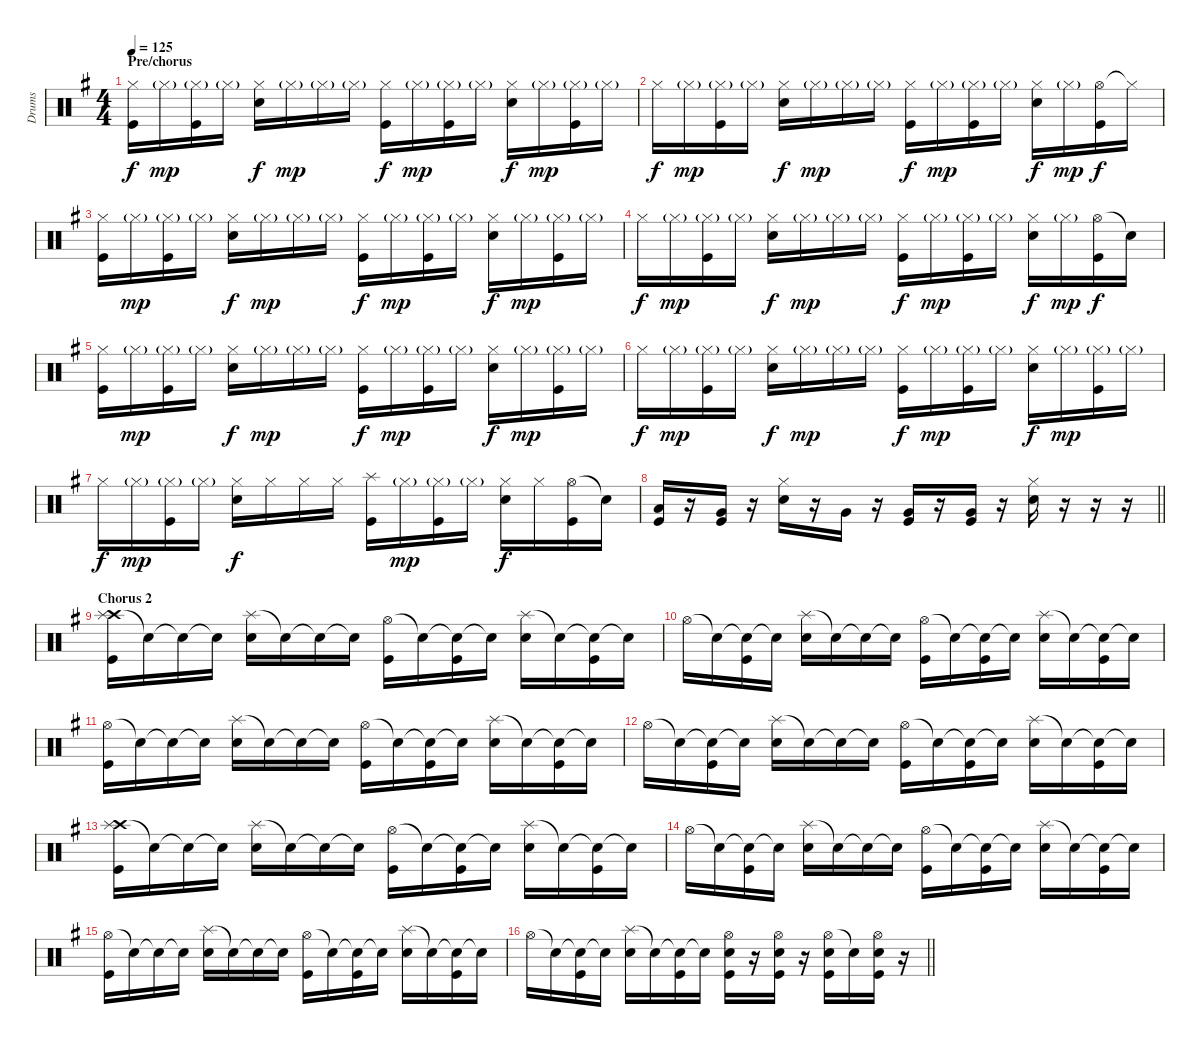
\track ("Drums" "Drums") {instrument percussion}
\staff {score}
\articulation defaults
\ts (4 4)
\section ("" "Pre/chorus")
\tempo 125
\clef neutral
\ks g
("Hi-Hat (closed)" "Kick (hit)").16{dy f} "Hi-Hat (closed)"{g}.16{dy mp} ("Hi-Hat (closed)"{g} "Kick (hit)").16 "Hi-Hat (closed)"{g}.16 ("Hi-Hat (closed)" "Electric Snare (hit)").16{dy f} "Hi-Hat (closed)"{g}.16{dy mp} "Hi-Hat (closed)"{g}.16 "Hi-Hat (closed)"{g}.16 ("Hi-Hat (closed)" "Kick (hit)").16{dy f} "Hi-Hat (closed)"{g}.16{dy mp} ("Hi-Hat (closed)"{g} "Kick (hit)").16 "Hi-Hat (closed)"{g}.16 ("Hi-Hat (closed)" "Electric Snare (hit)").16{dy f} "Hi-Hat (closed)"{g}.16{dy mp} ("Hi-Hat (closed)"{g} "Kick (hit)").16 "Hi-Hat (closed)"{g}.16 |
"Hi-Hat (closed)".16{dy f} "Hi-Hat (closed)"{g}.16{dy mp} ("Hi-Hat (closed)"{g} "Kick (hit)").16 "Hi-Hat (closed)"{g}.16 ("Hi-Hat (closed)" "Electric Snare (hit)").16{dy f} "Hi-Hat (closed)"{g}.16{dy mp} "Hi-Hat (closed)"{g}.16 "Hi-Hat (closed)"{g}.16 ("Hi-Hat (closed)" "Kick (hit)").16{dy f} "Hi-Hat (closed)"{g}.16{dy mp} ("Hi-Hat (closed)"{g} "Kick (hit)").16 "Hi-Hat (closed)"{g}.16 ("Hi-Hat (closed)" "Electric Snare (hit)").16{dy f} "Hi-Hat (closed)"{g}.16{dy mp} ("Hi-Hat (open)" "Kick (hit)").16{dy f} "Hi-Hat (closed)"{t}.16 |
("Hi-Hat (closed)" "Kick (hit)").16 "Hi-Hat (closed)"{g}.16{dy mp} ("Hi-Hat (closed)"{g} "Kick (hit)").16 "Hi-Hat (closed)"{g}.16 ("Hi-Hat (closed)" "Electric Snare (hit)").16{dy f} "Hi-Hat (closed)"{g}.16{dy mp} "Hi-Hat (closed)"{g}.16 "Hi-Hat (closed)"{g}.16 ("Hi-Hat (closed)" "Kick (hit)").16{dy f} "Hi-Hat (closed)"{g}.16{dy mp} ("Hi-Hat (closed)"{g} "Kick (hit)").16 "Hi-Hat (closed)"{g}.16 ("Hi-Hat (closed)" "Electric Snare (hit)").16{dy f} "Hi-Hat (closed)"{g}.16{dy mp} ("Hi-Hat (closed)"{g} "Kick (hit)").16 "Hi-Hat (closed)"{g}.16 |
"Hi-Hat (closed)".16{dy f} "Hi-Hat (closed)"{g}.16{dy mp} ("Hi-Hat (closed)"{g} "Kick (hit)").16 "Hi-Hat (closed)"{g}.16 ("Hi-Hat (closed)" "Electric Snare (hit)").16{dy f} "Hi-Hat (closed)"{g}.16{dy mp} "Hi-Hat (closed)"{g}.16 "Hi-Hat (closed)"{g}.16 ("Hi-Hat (closed)" "Kick (hit)").16{dy f} "Hi-Hat (closed)"{g}.16{dy mp} ("Hi-Hat (closed)"{g} "Kick (hit)").16 "Hi-Hat (closed)"{g}.16 ("Hi-Hat (closed)" "Electric Snare (hit)").16{dy f} "Hi-Hat (closed)"{g}.16{dy mp} ("Hi-Hat (open)" "Kick (hit)").16{dy f} "Snare (hit)"{t}.16 |
("Hi-Hat (closed)" "Kick (hit)").16 "Hi-Hat (closed)"{g}.16{dy mp} ("Hi-Hat (closed)"{g} "Kick (hit)").16 "Hi-Hat (closed)"{g}.16 ("Hi-Hat (closed)" "Electric Snare (hit)").16{dy f} "Hi-Hat (closed)"{g}.16{dy mp} "Hi-Hat (closed)"{g}.16 "Hi-Hat (closed)"{g}.16 ("Hi-Hat (closed)" "Kick (hit)").16{dy f} "Hi-Hat (closed)"{g}.16{dy mp} ("Hi-Hat (closed)"{g} "Kick (hit)").16 "Hi-Hat (closed)"{g}.16 ("Hi-Hat (closed)" "Electric Snare (hit)").16{dy f} "Hi-Hat (closed)"{g}.16{dy mp} ("Hi-Hat (closed)"{g} "Kick (hit)").16 "Hi-Hat (closed)"{g}.16 |
"Hi-Hat (closed)".16{dy f} "Hi-Hat (closed)"{g}.16{dy mp} ("Hi-Hat (closed)"{g} "Kick (hit)").16 "Hi-Hat (closed)"{g}.16 ("Hi-Hat (closed)" "Electric Snare (hit)").16{dy f} "Hi-Hat (closed)"{g}.16{dy mp} "Hi-Hat (closed)"{g}.16 "Hi-Hat (closed)"{g}.16 ("Hi-Hat (closed)" "Kick (hit)").16{dy f} "Hi-Hat (closed)"{g}.16{dy mp} ("Hi-Hat (closed)"{g} "Kick (hit)").16 "Hi-Hat (closed)"{g}.16 ("Hi-Hat (closed)" "Electric Snare (hit)").16{dy f} "Hi-Hat (closed)"{g}.16{dy mp} ("Hi-Hat (closed)"{g} "Kick (hit)").16 "Hi-Hat (closed)"{g}.16 |
"Hi-Hat (closed)".16{dy f} "Hi-Hat (closed)"{g}.16{dy mp} ("Hi-Hat (closed)"{g} "Kick (hit)").16 "Hi-Hat (closed)"{g}.16 ("Hi-Hat (closed)" "Electric Snare (hit)").16{dy f} "Hi-Hat (closed)".16 "Hi-Hat (closed)".16 "Hi-Hat (closed)".16 ("Splash (hit)" "Kick (hit)").16 "Hi-Hat (closed)"{g}.16{dy mp} ("Hi-Hat (closed)"{g} "Kick (hit)").16 "Hi-Hat (closed)"{g}.16 ("Hi-Hat (closed)" "Electric Snare (hit)").16{dy f} "Hi-Hat (closed)".16 ("Hi-Hat (open)" "Kick (hit)").16 "Snare (hit)"{t}.16 |
\barLineRight lightlight
("Low Floor Tom (hit)" "Kick (hit)").16 r.16 ("Very Low Tom (hit)" "Kick (hit)").16 r.16 ("Hi-Hat (closed)" "Electric Snare (hit)").16 r.16 "Very Low Tom (hit)".16 r.16 ("Very Low Tom (hit)" "Kick (hit)").16 r.16 ("Very Low Tom (hit)" "Kick (hit)").16 r.16 ("Hi-Hat (closed)" "Electric Snare (hit)").16 r.16 r.16 r.16 |
\section ("" "Chorus 2")
("Crash high (hit)" "Splash (hit)" "Kick (hit)").16 "Snare (hit)"{t}.16 "Snare (hit)"{t}.16 "Snare (hit)"{t}.16 ("Splash (hit)" "Electric Snare (hit)").16 "Snare (hit)"{t}.16 "Snare (hit)"{t}.16 "Snare (hit)"{t}.16 ("Hi-Hat (open)" "Kick (hit)").16 "Snare (hit)"{t}.16 ("Snare (hit)"{t} "Kick (hit)").16 "Snare (hit)"{t}.16 ("Splash (hit)" "Electric Snare (hit)").16 "Snare (hit)"{t}.16 ("Snare (hit)"{t} "Kick (hit)").16 "Snare (hit)"{t}.16 |
"Hi-Hat (open)".16 "Snare (hit)"{t}.16 ("Snare (hit)"{t} "Kick (hit)").16 "Snare (hit)"{t}.16 ("Splash (hit)" "Electric Snare (hit)").16 "Snare (hit)"{t}.16 "Snare (hit)"{t}.16 "Snare (hit)"{t}.16 ("Hi-Hat (open)" "Kick (hit)").16 "Snare (hit)"{t}.16 ("Snare (hit)"{t} "Kick (hit)").16 "Snare (hit)"{t}.16 ("Splash (hit)" "Electric Snare (hit)").16 "Snare (hit)"{t}.16 ("Snare (hit)"{t} "Kick (hit)").16 "Snare (hit)"{t}.16 |
("Hi-Hat (open)" "Kick (hit)").16 "Snare (hit)"{t}.16 "Snare (hit)"{t}.16 "Snare (hit)"{t}.16 ("Splash (hit)" "Electric Snare (hit)").16 "Snare (hit)"{t}.16 "Snare (hit)"{t}.16 "Snare (hit)"{t}.16 ("Hi-Hat (open)" "Kick (hit)").16 "Snare (hit)"{t}.16 ("Snare (hit)"{t} "Kick (hit)").16 "Snare (hit)"{t}.16 ("Splash (hit)" "Electric Snare (hit)").16 "Snare (hit)"{t}.16 ("Snare (hit)"{t} "Kick (hit)").16 "Snare (hit)"{t}.16 |
"Hi-Hat (open)".16 "Snare (hit)"{t}.16 ("Snare (hit)"{t} "Kick (hit)").16 "Snare (hit)"{t}.16 ("Splash (hit)" "Electric Snare (hit)").16 "Snare (hit)"{t}.16 "Snare (hit)"{t}.16 "Snare (hit)"{t}.16 ("Hi-Hat (open)" "Kick (hit)").16 "Snare (hit)"{t}.16 ("Snare (hit)"{t} "Kick (hit)").16 "Snare (hit)"{t}.16 ("Splash (hit)" "Electric Snare (hit)").16 "Snare (hit)"{t}.16 ("Snare (hit)"{t} "Kick (hit)").16 "Snare (hit)"{t}.16 |
("Crash high (hit)" "Splash (hit)" "Kick (hit)").16 "Snare (hit)"{t}.16 "Snare (hit)"{t}.16 "Snare (hit)"{t}.16 ("Splash (hit)" "Electric Snare (hit)").16 "Snare (hit)"{t}.16 "Snare (hit)"{t}.16 "Snare (hit)"{t}.16 ("Hi-Hat (open)" "Kick (hit)").16 "Snare (hit)"{t}.16 ("Snare (hit)"{t} "Kick (hit)").16 "Snare (hit)"{t}.16 ("Splash (hit)" "Electric Snare (hit)").16 "Snare (hit)"{t}.16 ("Snare (hit)"{t} "Kick (hit)").16 "Snare (hit)"{t}.16 |
"Hi-Hat (open)".16 "Snare (hit)"{t}.16 ("Snare (hit)"{t} "Kick (hit)").16 "Snare (hit)"{t}.16 ("Splash (hit)" "Electric Snare (hit)").16 "Snare (hit)"{t}.16 "Snare (hit)"{t}.16 "Snare (hit)"{t}.16 ("Hi-Hat (open)" "Kick (hit)").16 "Snare (hit)"{t}.16 ("Snare (hit)"{t} "Kick (hit)").16 "Snare (hit)"{t}.16 ("Splash (hit)" "Electric Snare (hit)").16 "Snare (hit)"{t}.16 ("Snare (hit)"{t} "Kick (hit)").16 "Snare (hit)"{t}.16 |
("Hi-Hat (open)" "Kick (hit)").16 "Snare (hit)"{t}.16 "Snare (hit)"{t}.16 "Snare (hit)"{t}.16 ("Splash (hit)" "Electric Snare (hit)").16 "Snare (hit)"{t}.16 "Snare (hit)"{t}.16 "Snare (hit)"{t}.16 ("Hi-Hat (open)" "Kick (hit)").16 "Snare (hit)"{t}.16 ("Snare (hit)"{t} "Kick (hit)").16 "Snare (hit)"{t}.16 ("Splash (hit)" "Electric Snare (hit)").16 "Snare (hit)"{t}.16 ("Snare (hit)"{t} "Kick (hit)").16 "Snare (hit)"{t}.16 |
\barLineRight lightlight "Hi-Hat (open)".16 "Snare (hit)"{t}.16
("Snare (hit)"{t} "Kick (hit)").16 "Snare (hit)"{t}.16 ("Splash (hit)" "Electric Snare (hit)").16 "Snare (hit)"{t}.16 ("Snare (hit)"{t} "Kick (hit)").16 "Snare (hit)"{t}.16 ("Hi-Hat (open)" "Electric Snare (hit)" "Kick (hit)").16 r.16 ("Hi-Hat (open)" "Electric Snare (hit)" "Kick (hit)").16 r.16 ("Hi-Hat (open)" "Electric Snare (hit)" "Kick (hit)").16 "Snare (hit)"{t}.16 ("Hi-Hat (open)" "Electric Snare (hit)" "Kick (hit)").16 r.16
